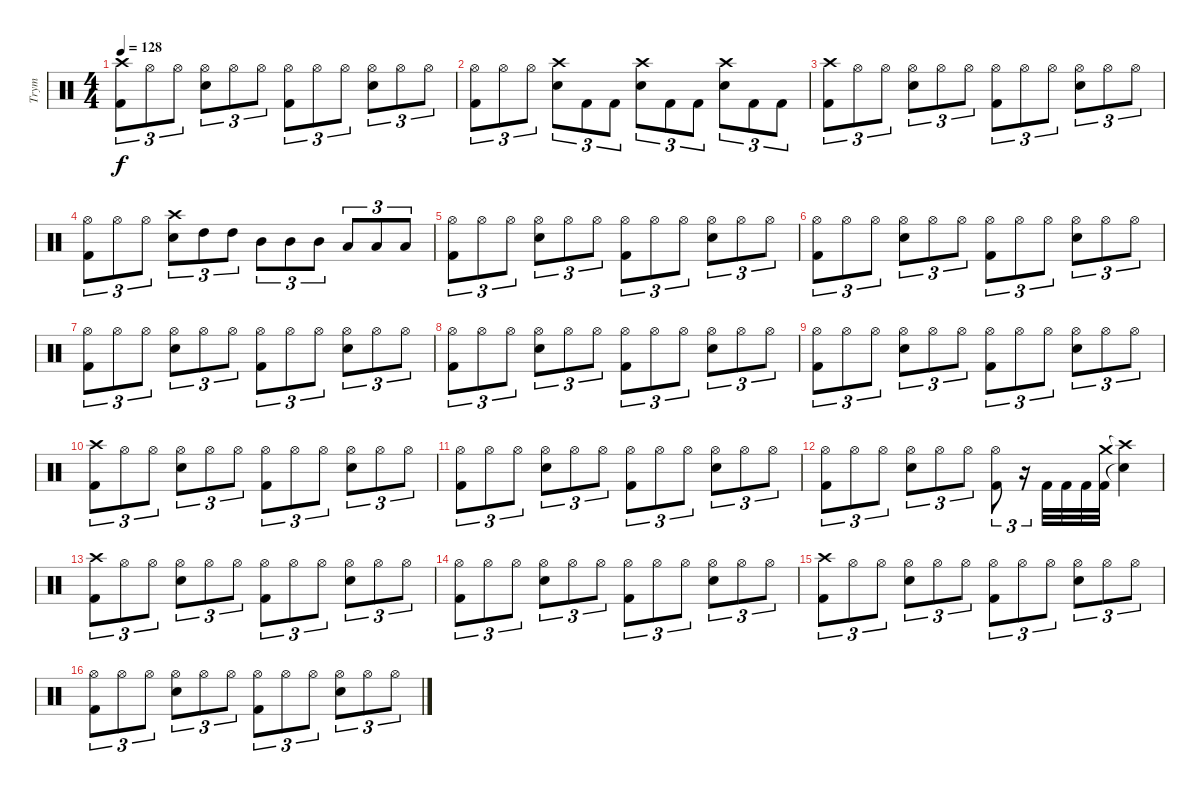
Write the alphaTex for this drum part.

\track ("Trym" "Trym") {instrument percussion}
\staff {score}
\articulation defaults
\ts (4 4)
\tempo 128
\clef neutral
\ks c
("Crash high (hit)" "Kick (hit) 2").8{tu (3 2) dy f} "Hi-Hat (open)".8{tu (3 2)} "Hi-Hat (open)".8{tu (3 2)} ("Hi-Hat (open)" "Electric Snare (hit)").8{tu (3 2)} "Hi-Hat (open)".8{tu (3 2)} "Hi-Hat (open)".8{tu (3 2)} ("Hi-Hat (open)" "Kick (hit) 2").8{tu (3 2)} "Hi-Hat (open)".8{tu (3 2)} "Hi-Hat (open)".8{tu (3 2)} ("Hi-Hat (open)" "Electric Snare (hit)").8{tu (3 2)} "Hi-Hat (open)".8{tu (3 2)} "Hi-Hat (open)".8{tu (3 2)} |
("Hi-Hat (open)" "Kick (hit) 2").8{tu (3 2)} "Hi-Hat (open)".8{tu (3 2)} "Hi-Hat (open)".8{tu (3 2)} ("Crash high (hit)" "Electric Snare (hit)").8{tu (3 2)} "Kick (hit) 2".8{tu (3 2)} "Kick (hit) 2".8{tu (3 2)} ("Crash high (hit)" "Electric Snare (hit)").8{tu (3 2)} "Kick (hit) 2".8{tu (3 2)} "Kick (hit) 2".8{tu (3 2)} ("Crash high (hit)" "Electric Snare (hit)").8{tu (3 2)} "Kick (hit) 2".8{tu (3 2)} "Kick (hit) 2".8{tu (3 2)} |
("Crash high (hit)" "Kick (hit) 2").8{tu (3 2)} "Hi-Hat (open)".8{tu (3 2)} "Hi-Hat (open)".8{tu (3 2)} ("Hi-Hat (open)" "Electric Snare (hit)").8{tu (3 2)} "Hi-Hat (open)".8{tu (3 2)} "Hi-Hat (open)".8{tu (3 2)} ("Hi-Hat (open)" "Kick (hit) 2").8{tu (3 2)} "Hi-Hat (open)".8{tu (3 2)} "Hi-Hat (open)".8{tu (3 2)} ("Hi-Hat (open)" "Electric Snare (hit)").8{tu (3 2)} "Hi-Hat (open)".8{tu (3 2)} "Hi-Hat (open)".8{tu (3 2)} |
("Hi-Hat (open)" "Kick (hit) 2").8{tu (3 2)} "Hi-Hat (open)".8{tu (3 2)} "Hi-Hat (open)".8{tu (3 2)} ("Crash high (hit)" "Electric Snare (hit)").8{tu (3 2)} "High Tom (hit)".8{tu (3 2)} "High Tom (hit)".8{tu (3 2)} "Mid Tom (hit)".8{tu (3 2)} "Mid Tom (hit)".8{tu (3 2)} "Mid Tom (hit)".8{tu (3 2)} "Low Tom (hit)".8{tu (3 2)} "Low Tom (hit)".8{tu (3 2)} "Low Tom (hit)".8{tu (3 2)} |
("Hi-Hat (open)" "Kick (hit) 2").8{tu (3 2)} "Hi-Hat (open)".8{tu (3 2)} "Hi-Hat (open)".8{tu (3 2)} ("Hi-Hat (open)" "Electric Snare (hit)").8{tu (3 2)} "Hi-Hat (open)".8{tu (3 2)} "Hi-Hat (open)".8{tu (3 2)} ("Hi-Hat (open)" "Kick (hit) 2").8{tu (3 2)} "Hi-Hat (open)".8{tu (3 2)} "Hi-Hat (open)".8{tu (3 2)} ("Hi-Hat (open)" "Electric Snare (hit)").8{tu (3 2)} "Hi-Hat (open)".8{tu (3 2)} "Hi-Hat (open)".8{tu (3 2)} |
("Hi-Hat (open)" "Kick (hit) 2").8{tu (3 2)} "Hi-Hat (open)".8{tu (3 2)} "Hi-Hat (open)".8{tu (3 2)} ("Hi-Hat (open)" "Electric Snare (hit)").8{tu (3 2)} "Hi-Hat (open)".8{tu (3 2)} "Hi-Hat (open)".8{tu (3 2)} ("Hi-Hat (open)" "Kick (hit) 2").8{tu (3 2)} "Hi-Hat (open)".8{tu (3 2)} "Hi-Hat (open)".8{tu (3 2)} ("Hi-Hat (open)" "Electric Snare (hit)").8{tu (3 2)} "Hi-Hat (open)".8{tu (3 2)} "Hi-Hat (open)".8{tu (3 2)} |
("Hi-Hat (open)" "Kick (hit) 2").8{tu (3 2)} "Hi-Hat (open)".8{tu (3 2)} "Hi-Hat (open)".8{tu (3 2)} ("Hi-Hat (open)" "Electric Snare (hit)").8{tu (3 2)} "Hi-Hat (open)".8{tu (3 2)} "Hi-Hat (open)".8{tu (3 2)} ("Hi-Hat (open)" "Kick (hit) 2").8{tu (3 2)} "Hi-Hat (open)".8{tu (3 2)} "Hi-Hat (open)".8{tu (3 2)} ("Hi-Hat (open)" "Electric Snare (hit)").8{tu (3 2)} "Hi-Hat (open)".8{tu (3 2)} "Hi-Hat (open)".8{tu (3 2)} |
("Hi-Hat (open)" "Kick (hit) 2").8{tu (3 2)} "Hi-Hat (open)".8{tu (3 2)} "Hi-Hat (open)".8{tu (3 2)} ("Hi-Hat (open)" "Electric Snare (hit)").8{tu (3 2)} "Hi-Hat (open)".8{tu (3 2)} "Hi-Hat (open)".8{tu (3 2)} ("Hi-Hat (open)" "Kick (hit) 2").8{tu (3 2)} "Hi-Hat (open)".8{tu (3 2)} "Hi-Hat (open)".8{tu (3 2)} ("Hi-Hat (open)" "Electric Snare (hit)").8{tu (3 2)} "Hi-Hat (open)".8{tu (3 2)} "Hi-Hat (open)".8{tu (3 2)} |
("Hi-Hat (open)" "Kick (hit) 2").8{tu (3 2)} "Hi-Hat (open)".8{tu (3 2)} "Hi-Hat (open)".8{tu (3 2)} ("Hi-Hat (open)" "Electric Snare (hit)").8{tu (3 2)} "Hi-Hat (open)".8{tu (3 2)} "Hi-Hat (open)".8{tu (3 2)} ("Hi-Hat (open)" "Kick (hit) 2").8{tu (3 2)} "Hi-Hat (open)".8{tu (3 2)} "Hi-Hat (open)".8{tu (3 2)} ("Hi-Hat (open)" "Electric Snare (hit)").8{tu (3 2)} "Hi-Hat (open)".8{tu (3 2)} "Hi-Hat (open)".8{tu (3 2)} |
("Crash high (hit)" "Kick (hit) 2").8{tu (3 2)} "Hi-Hat (open)".8{tu (3 2)} "Hi-Hat (open)".8{tu (3 2)} ("Hi-Hat (open)" "Electric Snare (hit)").8{tu (3 2)} "Hi-Hat (open)".8{tu (3 2)} "Hi-Hat (open)".8{tu (3 2)} ("Hi-Hat (open)" "Kick (hit) 2").8{tu (3 2)} "Hi-Hat (open)".8{tu (3 2)} "Hi-Hat (open)".8{tu (3 2)} ("Hi-Hat (open)" "Electric Snare (hit)").8{tu (3 2)} "Hi-Hat (open)".8{tu (3 2)} "Hi-Hat (open)".8{tu (3 2)} |
("Hi-Hat (open)" "Kick (hit) 2").8{tu (3 2)} "Hi-Hat (open)".8{tu (3 2)} "Hi-Hat (open)".8{tu (3 2)} ("Hi-Hat (open)" "Electric Snare (hit)").8{tu (3 2)} "Hi-Hat (open)".8{tu (3 2)} "Hi-Hat (open)".8{tu (3 2)} ("Hi-Hat (open)" "Kick (hit) 2").8{tu (3 2)} "Hi-Hat (open)".8{tu (3 2)} "Hi-Hat (open)".8{tu (3 2)} ("Hi-Hat (open)" "Electric Snare (hit)").8{tu (3 2)} "Hi-Hat (open)".8{tu (3 2)} "Hi-Hat (open)".8{tu (3 2)} |
("Hi-Hat (open)" "Kick (hit) 2").8{tu (3 2)} "Hi-Hat (open)".8{tu (3 2)} "Hi-Hat (open)".8{tu (3 2)} ("Hi-Hat (open)" "Electric Snare (hit)").8{tu (3 2)} "Hi-Hat (open)".8{tu (3 2)} "Hi-Hat (open)".8{tu (3 2)} ("Hi-Hat (open)" "Kick (hit) 2").8{tu (3 2)} r.16{tu (3 2)} "Kick (hit) 2".32 "Kick (hit) 2".32 "Kick (hit) 2".32 ("Crash medium (hit)" "Kick (hit) 2").32 ("Crash high (hit)"{t} "Snare (hit)"{t}).4 |
("Crash high (hit)" "Kick (hit) 2").8{tu (3 2)} "Hi-Hat (open)".8{tu (3 2)} "Hi-Hat (open)".8{tu (3 2)} ("Hi-Hat (open)" "Electric Snare (hit)").8{tu (3 2)} "Hi-Hat (open)".8{tu (3 2)} "Hi-Hat (open)".8{tu (3 2)} ("Hi-Hat (open)" "Kick (hit) 2").8{tu (3 2)} "Hi-Hat (open)".8{tu (3 2)} "Hi-Hat (open)".8{tu (3 2)} ("Hi-Hat (open)" "Electric Snare (hit)").8{tu (3 2)} "Hi-Hat (open)".8{tu (3 2)} "Hi-Hat (open)".8{tu (3 2)} |
("Hi-Hat (open)" "Kick (hit) 2").8{tu (3 2)} "Hi-Hat (open)".8{tu (3 2)} "Hi-Hat (open)".8{tu (3 2)} ("Hi-Hat (open)" "Electric Snare (hit)").8{tu (3 2)} "Hi-Hat (open)".8{tu (3 2)} "Hi-Hat (open)".8{tu (3 2)} ("Hi-Hat (open)" "Kick (hit) 2").8{tu (3 2)} "Hi-Hat (open)".8{tu (3 2)} "Hi-Hat (open)".8{tu (3 2)} ("Hi-Hat (open)" "Electric Snare (hit)").8{tu (3 2)} "Hi-Hat (open)".8{tu (3 2)} "Hi-Hat (open)".8{tu (3 2)} |
("Crash high (hit)" "Kick (hit) 2").8{tu (3 2)} "Hi-Hat (open)".8{tu (3 2)} "Hi-Hat (open)".8{tu (3 2)} ("Hi-Hat (open)" "Electric Snare (hit)").8{tu (3 2)} "Hi-Hat (open)".8{tu (3 2)} "Hi-Hat (open)".8{tu (3 2)} ("Hi-Hat (open)" "Kick (hit) 2").8{tu (3 2)} "Hi-Hat (open)".8{tu (3 2)} "Hi-Hat (open)".8{tu (3 2)} ("Hi-Hat (open)" "Electric Snare (hit)").8{tu (3 2)} "Hi-Hat (open)".8{tu (3 2)} "Hi-Hat (open)".8{tu (3 2)} |
("Hi-Hat (open)" "Kick (hit) 2").8{tu (3 2)} "Hi-Hat (open)".8{tu (3 2)} "Hi-Hat (open)".8{tu (3 2)} ("Hi-Hat (open)" "Electric Snare (hit)").8{tu (3 2)} "Hi-Hat (open)".8{tu (3 2)} "Hi-Hat (open)".8{tu (3 2)} ("Hi-Hat (open)" "Kick (hit) 2").8{tu (3 2)} "Hi-Hat (open)".8{tu (3 2)} "Hi-Hat (open)".8{tu (3 2)} ("Hi-Hat (open)" "Electric Snare (hit)").8{tu (3 2)} "Hi-Hat (open)".8{tu (3 2)} "Hi-Hat (open)".8{tu (3 2)}
